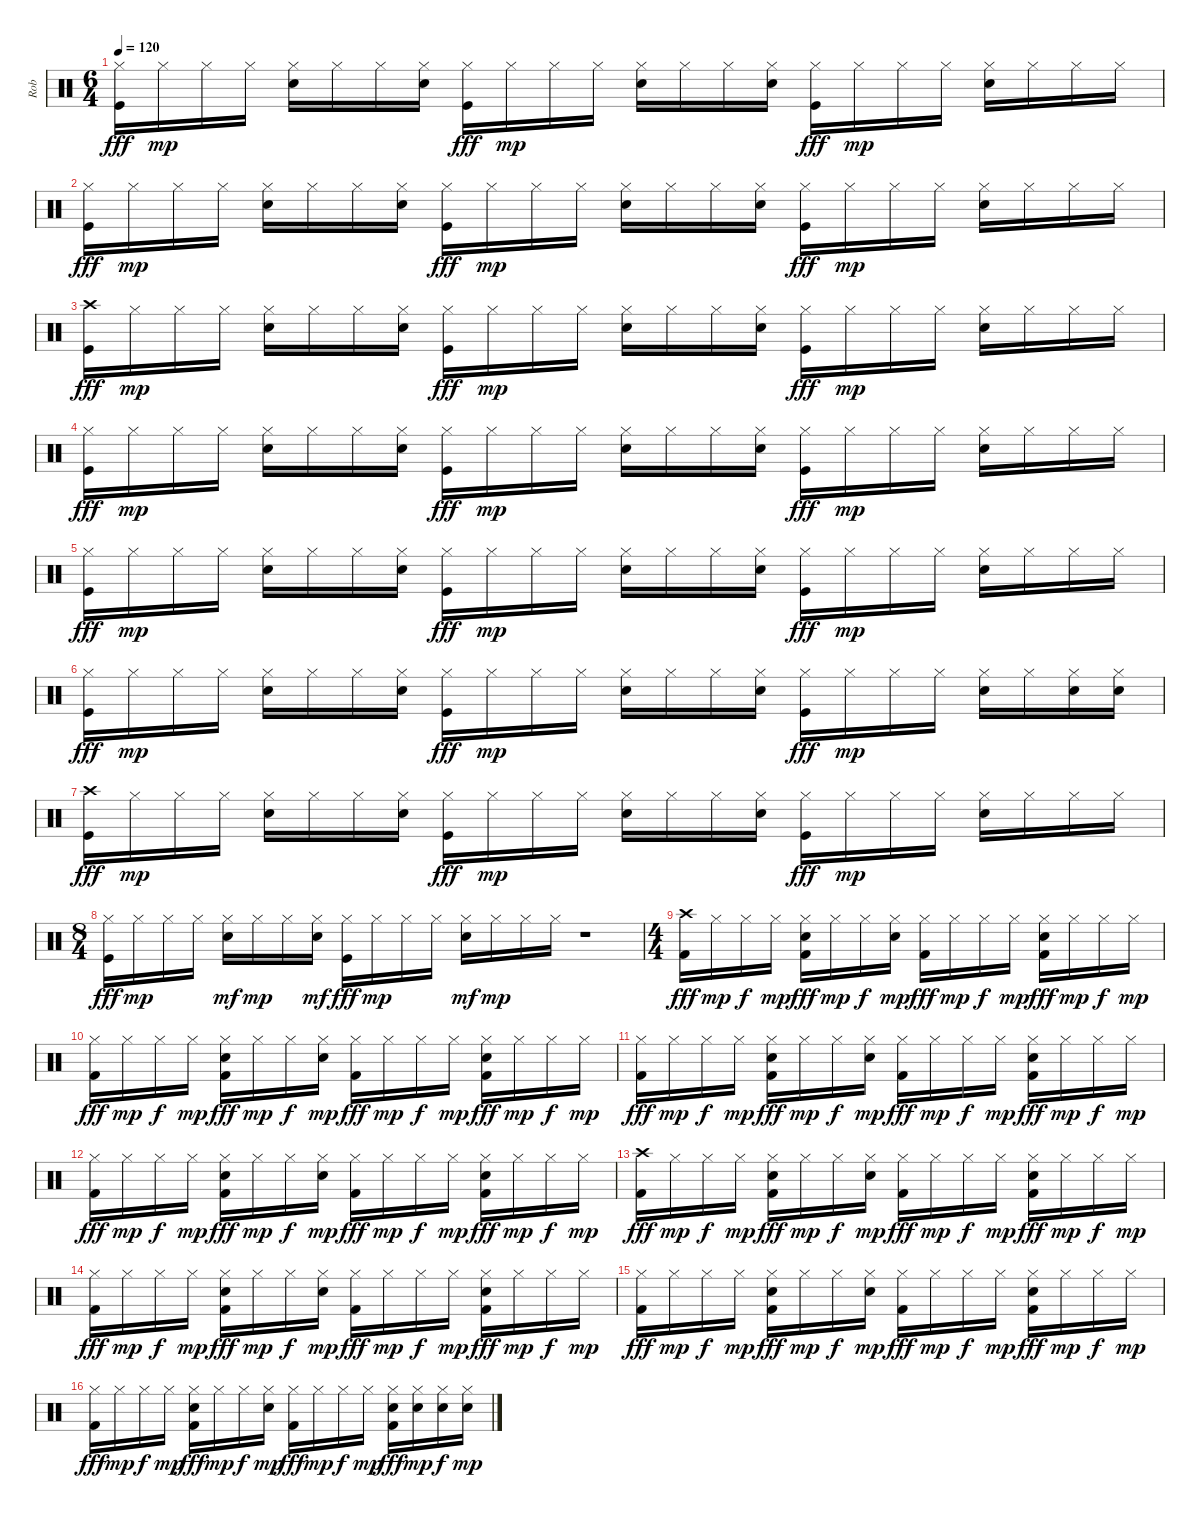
\track ("Rob" "Rob") {instrument percussion}
\staff {score}
\articulation defaults
\ts (6 4)
\tempo 120
\clef neutral
\ks c
("Hi-Hat (closed)" "Kick (hit)").16{dy fff} "Hi-Hat (closed)".16{dy mp} "Hi-Hat (closed)".16 "Hi-Hat (closed)".16 ("Hi-Hat (closed)" "Snare (hit) 2").16 "Hi-Hat (closed)".16 "Hi-Hat (closed)".16 ("Hi-Hat (closed)" "Snare (hit) 2").16 ("Hi-Hat (closed)" "Kick (hit)").16{dy fff} "Hi-Hat (closed)".16{dy mp} "Hi-Hat (closed)".16 "Hi-Hat (closed)".16 ("Hi-Hat (closed)" "Snare (hit) 2").16 "Hi-Hat (closed)".16 "Hi-Hat (closed)".16 ("Hi-Hat (closed)" "Snare (hit) 2").16 ("Hi-Hat (closed)" "Kick (hit)").16{dy fff} "Hi-Hat (closed)".16{dy mp} "Hi-Hat (closed)".16 "Hi-Hat (closed)".16 ("Hi-Hat (closed)" "Snare (hit) 2").16 "Hi-Hat (closed)".16 "Hi-Hat (closed)".16 "Hi-Hat (closed)".16 |
("Hi-Hat (closed)" "Kick (hit)").16{dy fff} "Hi-Hat (closed)".16{dy mp} "Hi-Hat (closed)".16 "Hi-Hat (closed)".16 ("Hi-Hat (closed)" "Snare (hit) 2").16 "Hi-Hat (closed)".16 "Hi-Hat (closed)".16 ("Hi-Hat (closed)" "Snare (hit) 2").16 ("Hi-Hat (closed)" "Kick (hit)").16{dy fff} "Hi-Hat (closed)".16{dy mp} "Hi-Hat (closed)".16 "Hi-Hat (closed)".16 ("Hi-Hat (closed)" "Snare (hit) 2").16 "Hi-Hat (closed)".16 "Hi-Hat (closed)".16 ("Hi-Hat (closed)" "Snare (hit) 2").16 ("Hi-Hat (closed)" "Kick (hit)").16{dy fff} "Hi-Hat (closed)".16{dy mp} "Hi-Hat (closed)".16 "Hi-Hat (closed)".16 ("Hi-Hat (closed)" "Snare (hit) 2").16 "Hi-Hat (closed)".16 "Hi-Hat (closed)".16 "Hi-Hat (closed)".16 |
("Crash high (hit)" "Kick (hit)").16{dy fff} "Hi-Hat (closed)".16{dy mp} "Hi-Hat (closed)".16 "Hi-Hat (closed)".16 ("Hi-Hat (closed)" "Snare (hit) 2").16 "Hi-Hat (closed)".16 "Hi-Hat (closed)".16 ("Hi-Hat (closed)" "Snare (hit) 2").16 ("Hi-Hat (closed)" "Kick (hit)").16{dy fff} "Hi-Hat (closed)".16{dy mp} "Hi-Hat (closed)".16 "Hi-Hat (closed)".16 ("Hi-Hat (closed)" "Snare (hit) 2").16 "Hi-Hat (closed)".16 "Hi-Hat (closed)".16 ("Hi-Hat (closed)" "Snare (hit) 2").16 ("Hi-Hat (closed)" "Kick (hit)").16{dy fff} "Hi-Hat (closed)".16{dy mp} "Hi-Hat (closed)".16 "Hi-Hat (closed)".16 ("Hi-Hat (closed)" "Snare (hit) 2").16 "Hi-Hat (closed)".16 "Hi-Hat (closed)".16 "Hi-Hat (closed)".16 |
("Hi-Hat (closed)" "Kick (hit)").16{dy fff} "Hi-Hat (closed)".16{dy mp} "Hi-Hat (closed)".16 "Hi-Hat (closed)".16 ("Hi-Hat (closed)" "Snare (hit) 2").16 "Hi-Hat (closed)".16 "Hi-Hat (closed)".16 ("Hi-Hat (closed)" "Snare (hit) 2").16 ("Hi-Hat (closed)" "Kick (hit)").16{dy fff} "Hi-Hat (closed)".16{dy mp} "Hi-Hat (closed)".16 "Hi-Hat (closed)".16 ("Hi-Hat (closed)" "Snare (hit) 2").16 "Hi-Hat (closed)".16 "Hi-Hat (closed)".16 ("Hi-Hat (closed)" "Snare (hit) 2").16 ("Hi-Hat (closed)" "Kick (hit)").16{dy fff} "Hi-Hat (closed)".16{dy mp} "Hi-Hat (closed)".16 "Hi-Hat (closed)".16 ("Hi-Hat (closed)" "Snare (hit) 2").16 "Hi-Hat (closed)".16 "Hi-Hat (closed)".16 "Hi-Hat (closed)".16 |
("Hi-Hat (closed)" "Kick (hit)").16{dy fff} "Hi-Hat (closed)".16{dy mp} "Hi-Hat (closed)".16 "Hi-Hat (closed)".16 ("Hi-Hat (closed)" "Snare (hit) 2").16 "Hi-Hat (closed)".16 "Hi-Hat (closed)".16 ("Hi-Hat (closed)" "Snare (hit) 2").16 ("Hi-Hat (closed)" "Kick (hit)").16{dy fff} "Hi-Hat (closed)".16{dy mp} "Hi-Hat (closed)".16 "Hi-Hat (closed)".16 ("Hi-Hat (closed)" "Snare (hit) 2").16 "Hi-Hat (closed)".16 "Hi-Hat (closed)".16 ("Hi-Hat (closed)" "Snare (hit) 2").16 ("Hi-Hat (closed)" "Kick (hit)").16{dy fff} "Hi-Hat (closed)".16{dy mp} "Hi-Hat (closed)".16 "Hi-Hat (closed)".16 ("Hi-Hat (closed)" "Snare (hit) 2").16 "Hi-Hat (closed)".16 "Hi-Hat (closed)".16 "Hi-Hat (closed)".16 |
("Hi-Hat (closed)" "Kick (hit)").16{dy fff} "Hi-Hat (closed)".16{dy mp} "Hi-Hat (closed)".16 "Hi-Hat (closed)".16 ("Hi-Hat (closed)" "Snare (hit) 2").16 "Hi-Hat (closed)".16 "Hi-Hat (closed)".16 ("Hi-Hat (closed)" "Snare (hit) 2").16 ("Hi-Hat (closed)" "Kick (hit)").16{dy fff} "Hi-Hat (closed)".16{dy mp} "Hi-Hat (closed)".16 "Hi-Hat (closed)".16 ("Hi-Hat (closed)" "Snare (hit) 2").16 "Hi-Hat (closed)".16 "Hi-Hat (closed)".16 ("Hi-Hat (closed)" "Snare (hit) 2").16 ("Hi-Hat (closed)" "Kick (hit)").16{dy fff} "Hi-Hat (closed)".16{dy mp} "Hi-Hat (closed)".16 "Hi-Hat (closed)".16 ("Hi-Hat (closed)" "Snare (hit) 2").16 "Hi-Hat (closed)".16 ("Hi-Hat (closed)" "Snare (hit) 2").16 ("Hi-Hat (closed)" "Snare (hit) 2").16 |
("Crash high (hit)" "Kick (hit)").16{dy fff} "Hi-Hat (closed)".16{dy mp} "Hi-Hat (closed)".16 "Hi-Hat (closed)".16 ("Hi-Hat (closed)" "Snare (hit) 2").16 "Hi-Hat (closed)".16 "Hi-Hat (closed)".16 ("Hi-Hat (closed)" "Snare (hit) 2").16 ("Hi-Hat (closed)" "Kick (hit)").16{dy fff} "Hi-Hat (closed)".16{dy mp} "Hi-Hat (closed)".16 "Hi-Hat (closed)".16 ("Hi-Hat (closed)" "Snare (hit) 2").16 "Hi-Hat (closed)".16 "Hi-Hat (closed)".16 ("Hi-Hat (closed)" "Snare (hit) 2").16 ("Hi-Hat (closed)" "Kick (hit)").16{dy fff} "Hi-Hat (closed)".16{dy mp} "Hi-Hat (closed)".16 "Hi-Hat (closed)".16 ("Hi-Hat (closed)" "Snare (hit) 2").16 "Hi-Hat (closed)".16 "Hi-Hat (closed)".16 "Hi-Hat (closed)".16 |
\ts (8 4)
("Hi-Hat (closed)" "Kick (hit)").16{dy fff} "Hi-Hat (closed)".16{dy mp} "Hi-Hat (closed)".16 "Hi-Hat (closed)".16 ("Hi-Hat (closed)" "Snare (hit) 2").16{dy mf} "Hi-Hat (closed)".16{dy mp} "Hi-Hat (closed)".16 ("Hi-Hat (closed)" "Snare (hit) 2").16{dy mf} ("Hi-Hat (closed)" "Kick (hit)").16{dy fff} "Hi-Hat (closed)".16{dy mp} "Hi-Hat (closed)".16 "Hi-Hat (closed)".16 ("Hi-Hat (closed)" "Snare (hit) 2").16{dy mf} "Hi-Hat (closed)".16{dy mp} "Hi-Hat (closed)".16 "Hi-Hat (closed)".16 r.1 |
\ts (4 4)
("Crash high (hit)" "Kick (hit) 2").16{dy fff} "Hi-Hat (closed)".16{dy mp} "Hi-Hat (closed)".16{dy f} "Hi-Hat (closed)".16{dy mp} ("Hi-Hat (closed)" "Snare (hit) 2" "Kick (hit) 2").16{dy fff} "Hi-Hat (closed)".16{dy mp} "Hi-Hat (closed)".16{dy f} ("Hi-Hat (closed)" "Snare (hit) 2").16{dy mp} ("Hi-Hat (closed)" "Kick (hit) 2").16{dy fff} "Hi-Hat (closed)".16{dy mp} "Hi-Hat (closed)".16{dy f} "Hi-Hat (closed)".16{dy mp} ("Hi-Hat (closed)" "Snare (hit) 2" "Kick (hit) 2").16{dy fff} "Hi-Hat (closed)".16{dy mp} "Hi-Hat (closed)".16{dy f} "Hi-Hat (closed)".16{dy mp} |
("Hi-Hat (closed)" "Kick (hit) 2").16{dy fff} "Hi-Hat (closed)".16{dy mp} "Hi-Hat (closed)".16{dy f} "Hi-Hat (closed)".16{dy mp} ("Hi-Hat (closed)" "Snare (hit) 2" "Kick (hit) 2").16{dy fff} "Hi-Hat (closed)".16{dy mp} "Hi-Hat (closed)".16{dy f} ("Hi-Hat (closed)" "Snare (hit) 2").16{dy mp} ("Hi-Hat (closed)" "Kick (hit) 2").16{dy fff} "Hi-Hat (closed)".16{dy mp} "Hi-Hat (closed)".16{dy f} "Hi-Hat (closed)".16{dy mp} ("Hi-Hat (closed)" "Snare (hit) 2" "Kick (hit) 2").16{dy fff} "Hi-Hat (closed)".16{dy mp} "Hi-Hat (closed)".16{dy f} "Hi-Hat (closed)".16{dy mp} |
("Hi-Hat (closed)" "Kick (hit) 2").16{dy fff} "Hi-Hat (closed)".16{dy mp} "Hi-Hat (closed)".16{dy f} "Hi-Hat (closed)".16{dy mp} ("Hi-Hat (closed)" "Snare (hit) 2" "Kick (hit) 2").16{dy fff} "Hi-Hat (closed)".16{dy mp} "Hi-Hat (closed)".16{dy f} ("Hi-Hat (closed)" "Snare (hit) 2").16{dy mp} ("Hi-Hat (closed)" "Kick (hit) 2").16{dy fff} "Hi-Hat (closed)".16{dy mp} "Hi-Hat (closed)".16{dy f} "Hi-Hat (closed)".16{dy mp} ("Hi-Hat (closed)" "Snare (hit) 2" "Kick (hit) 2").16{dy fff} "Hi-Hat (closed)".16{dy mp} "Hi-Hat (closed)".16{dy f} "Hi-Hat (closed)".16{dy mp} |
("Hi-Hat (closed)" "Kick (hit) 2").16{dy fff} "Hi-Hat (closed)".16{dy mp} "Hi-Hat (closed)".16{dy f} "Hi-Hat (closed)".16{dy mp} ("Hi-Hat (closed)" "Snare (hit) 2" "Kick (hit) 2").16{dy fff} "Hi-Hat (closed)".16{dy mp} "Hi-Hat (closed)".16{dy f} ("Hi-Hat (closed)" "Snare (hit) 2").16{dy mp} ("Hi-Hat (closed)" "Kick (hit) 2").16{dy fff} "Hi-Hat (closed)".16{dy mp} "Hi-Hat (closed)".16{dy f} "Hi-Hat (closed)".16{dy mp} ("Hi-Hat (closed)" "Snare (hit) 2" "Kick (hit) 2").16{dy fff} "Hi-Hat (closed)".16{dy mp} "Hi-Hat (closed)".16{dy f} "Hi-Hat (closed)".16{dy mp} |
("Crash high (hit)" "Kick (hit) 2").16{dy fff} "Hi-Hat (closed)".16{dy mp} "Hi-Hat (closed)".16{dy f} "Hi-Hat (closed)".16{dy mp} ("Hi-Hat (closed)" "Snare (hit) 2" "Kick (hit) 2").16{dy fff} "Hi-Hat (closed)".16{dy mp} "Hi-Hat (closed)".16{dy f} ("Hi-Hat (closed)" "Snare (hit) 2").16{dy mp} ("Hi-Hat (closed)" "Kick (hit) 2").16{dy fff} "Hi-Hat (closed)".16{dy mp} "Hi-Hat (closed)".16{dy f} "Hi-Hat (closed)".16{dy mp} ("Hi-Hat (closed)" "Snare (hit) 2" "Kick (hit) 2").16{dy fff} "Hi-Hat (closed)".16{dy mp} "Hi-Hat (closed)".16{dy f} "Hi-Hat (closed)".16{dy mp} |
("Hi-Hat (closed)" "Kick (hit) 2").16{dy fff} "Hi-Hat (closed)".16{dy mp} "Hi-Hat (closed)".16{dy f} "Hi-Hat (closed)".16{dy mp} ("Hi-Hat (closed)" "Snare (hit) 2" "Kick (hit) 2").16{dy fff} "Hi-Hat (closed)".16{dy mp} "Hi-Hat (closed)".16{dy f} ("Hi-Hat (closed)" "Snare (hit) 2").16{dy mp} ("Hi-Hat (closed)" "Kick (hit) 2").16{dy fff} "Hi-Hat (closed)".16{dy mp} "Hi-Hat (closed)".16{dy f} "Hi-Hat (closed)".16{dy mp} ("Hi-Hat (closed)" "Snare (hit) 2" "Kick (hit) 2").16{dy fff} "Hi-Hat (closed)".16{dy mp} "Hi-Hat (closed)".16{dy f} "Hi-Hat (closed)".16{dy mp} |
("Hi-Hat (closed)" "Kick (hit) 2").16{dy fff} "Hi-Hat (closed)".16{dy mp} "Hi-Hat (closed)".16{dy f} "Hi-Hat (closed)".16{dy mp} ("Hi-Hat (closed)" "Snare (hit) 2" "Kick (hit) 2").16{dy fff} "Hi-Hat (closed)".16{dy mp} "Hi-Hat (closed)".16{dy f} ("Hi-Hat (closed)" "Snare (hit) 2").16{dy mp} ("Hi-Hat (closed)" "Kick (hit) 2").16{dy fff} "Hi-Hat (closed)".16{dy mp} "Hi-Hat (closed)".16{dy f} "Hi-Hat (closed)".16{dy mp} ("Hi-Hat (closed)" "Snare (hit) 2" "Kick (hit) 2").16{dy fff} "Hi-Hat (closed)".16{dy mp} "Hi-Hat (closed)".16{dy f} "Hi-Hat (closed)".16{dy mp} |
("Hi-Hat (closed)" "Kick (hit) 2").16{dy fff} "Hi-Hat (closed)".16{dy mp} "Hi-Hat (closed)".16{dy f} "Hi-Hat (closed)".16{dy mp} ("Hi-Hat (closed)" "Snare (hit) 2" "Kick (hit) 2").16{dy fff} "Hi-Hat (closed)".16{dy mp} "Hi-Hat (closed)".16{dy f} ("Hi-Hat (closed)" "Snare (hit) 2").16{dy mp} ("Hi-Hat (closed)" "Kick (hit) 2").16{dy fff} "Hi-Hat (closed)".16{dy mp} "Hi-Hat (closed)".16{dy f} "Hi-Hat (closed)".16{dy mp} ("Hi-Hat (closed)" "Snare (hit) 2" "Kick (hit) 2").16{dy fff} ("Hi-Hat (closed)" "Snare (hit) 2").16{dy mp} ("Hi-Hat (closed)" "Snare (hit) 2").16{dy f} ("Hi-Hat (closed)" "Snare (hit) 2").16{dy mp}
